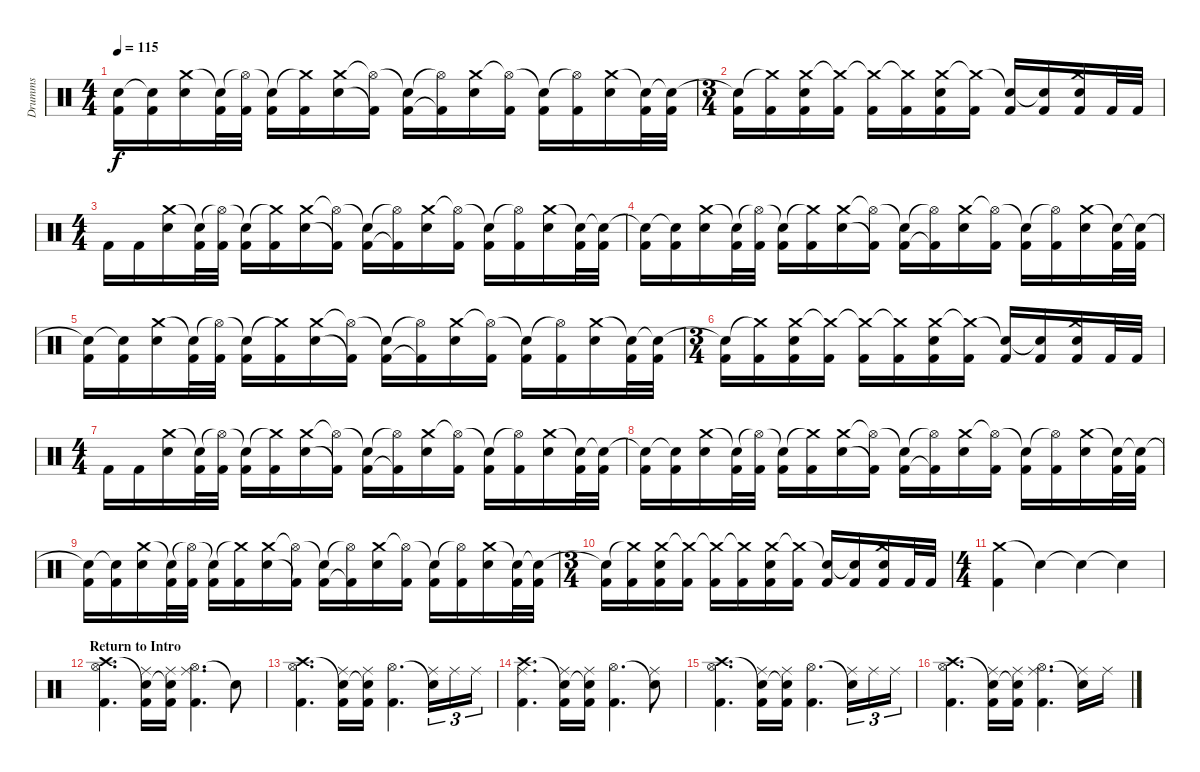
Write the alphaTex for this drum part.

\track ("Drumms" "Drumms") {instrument percussion}
\staff {score}
\articulation defaults
\ts (4 4)
\tempo 115
\clef neutral
\ks c
("Snare (hit)"{t} "Kick (hit) 2").16{dy f} ("Snare (hit)"{t} "Kick (hit) 2").16 ("Crash medium (hit)" "Electric Snare (hit)").16 ("Snare (hit)"{t} "Kick (hit) 2").32 ("Hi-Hat (open)"{t} "Kick (hit) 2").32 ("Snare (hit)"{t} "Kick (hit) 2").16 ("Crash medium (hit)"{t} "Kick (hit) 2").16 ("Crash medium (hit)" "Electric Snare (hit)").16 ("Hi-Hat (open)"{t} "Kick (hit) 2"{t}).16 ("Snare (hit)"{t} "Kick (hit) 2").16 ("Hi-Hat (open)"{t} "Kick (hit) 2"{t}).16 ("Crash medium (hit)" "Electric Snare (hit)").16 ("Hi-Hat (open)"{t} "Kick (hit) 2").16 ("Snare (hit)"{t} "Kick (hit) 2").16 ("Hi-Hat (open)"{t} "Kick (hit) 2").16 ("Crash medium (hit)" "Electric Snare (hit)").16 ("Snare (hit)"{t} "Kick (hit) 2").32 ("Snare (hit)"{t} "Kick (hit) 2").32 |
\ts (3 4)
("Snare (hit)"{t} "Kick (hit) 2").16 ("Crash medium (hit)"{t} "Kick (hit) 2").16 ("Crash medium (hit)" "Kick (hit) 2" "Electric Snare (hit)").16 ("Crash medium (hit)"{t} "Kick (hit) 2").16 ("Crash medium (hit)"{t} "Kick (hit) 2").16 ("Crash medium (hit)"{t} "Kick (hit) 2").16 ("Crash medium (hit)" "Kick (hit) 2" "Electric Snare (hit)").16 ("Crash medium (hit)"{t} "Kick (hit) 2").16 ("Snare (hit)"{t} "Kick (hit) 2").16 ("Snare (hit)"{t} "Kick (hit) 2").16 ("Crash medium (hit)" "Kick (hit) 2" "Electric Snare (hit)").16 "Kick (hit) 2".32 "Kick (hit) 2".32 |
\ts (4 4)
"Kick (hit) 2".16 "Kick (hit) 2".16 ("Crash medium (hit)" "Electric Snare (hit)").16 ("Snare (hit)"{t} "Kick (hit) 2").32 ("Hi-Hat (open)"{t} "Kick (hit) 2").32 ("Snare (hit)"{t} "Kick (hit) 2").16 ("Crash medium (hit)"{t} "Kick (hit) 2").16 ("Crash medium (hit)" "Electric Snare (hit)").16 ("Hi-Hat (open)"{t} "Kick (hit) 2"{t}).16 ("Snare (hit)"{t} "Kick (hit) 2").16 ("Hi-Hat (open)"{t} "Kick (hit) 2"{t}).16 ("Crash medium (hit)" "Electric Snare (hit)").16 ("Hi-Hat (open)"{t} "Kick (hit) 2").16 ("Snare (hit)"{t} "Kick (hit) 2").16 ("Hi-Hat (open)"{t} "Kick (hit) 2").16 ("Crash medium (hit)" "Electric Snare (hit)").16 ("Snare (hit)"{t} "Kick (hit) 2").32 ("Snare (hit)"{t} "Kick (hit) 2").32 |
("Snare (hit)"{t} "Kick (hit) 2").16 ("Snare (hit)"{t} "Kick (hit) 2").16 ("Crash medium (hit)" "Electric Snare (hit)").16 ("Snare (hit)"{t} "Kick (hit) 2").32 ("Hi-Hat (open)"{t} "Kick (hit) 2").32 ("Snare (hit)"{t} "Kick (hit) 2").16 ("Crash medium (hit)"{t} "Kick (hit) 2").16 ("Crash medium (hit)" "Electric Snare (hit)").16 ("Hi-Hat (open)"{t} "Kick (hit) 2"{t}).16 ("Snare (hit)"{t} "Kick (hit) 2").16 ("Hi-Hat (open)"{t} "Kick (hit) 2"{t}).16 ("Crash medium (hit)" "Electric Snare (hit)").16 ("Hi-Hat (open)"{t} "Kick (hit) 2").16 ("Snare (hit)"{t} "Kick (hit) 2").16 ("Hi-Hat (open)"{t} "Kick (hit) 2").16 ("Crash medium (hit)" "Electric Snare (hit)").16 ("Snare (hit)"{t} "Kick (hit) 2").32 ("Snare (hit)"{t} "Kick (hit) 2").32 |
("Snare (hit)"{t} "Kick (hit) 2").16 ("Snare (hit)"{t} "Kick (hit) 2").16 ("Crash medium (hit)" "Electric Snare (hit)").16 ("Snare (hit)"{t} "Kick (hit) 2").32 ("Hi-Hat (open)"{t} "Kick (hit) 2").32 ("Snare (hit)"{t} "Kick (hit) 2").16 ("Crash medium (hit)"{t} "Kick (hit) 2").16 ("Crash medium (hit)" "Electric Snare (hit)").16 ("Hi-Hat (open)"{t} "Kick (hit) 2"{t}).16 ("Snare (hit)"{t} "Kick (hit) 2").16 ("Hi-Hat (open)"{t} "Kick (hit) 2"{t}).16 ("Crash medium (hit)" "Electric Snare (hit)").16 ("Hi-Hat (open)"{t} "Kick (hit) 2").16 ("Snare (hit)"{t} "Kick (hit) 2").16 ("Hi-Hat (open)"{t} "Kick (hit) 2").16 ("Crash medium (hit)" "Electric Snare (hit)").16 ("Snare (hit)"{t} "Kick (hit) 2").32 ("Snare (hit)"{t} "Kick (hit) 2").32 |
\ts (3 4)
("Snare (hit)"{t} "Kick (hit) 2").16 ("Crash medium (hit)"{t} "Kick (hit) 2").16 ("Crash medium (hit)" "Kick (hit) 2" "Electric Snare (hit)").16 ("Crash medium (hit)"{t} "Kick (hit) 2").16 ("Crash medium (hit)"{t} "Kick (hit) 2").16 ("Crash medium (hit)"{t} "Kick (hit) 2").16 ("Crash medium (hit)" "Kick (hit) 2" "Electric Snare (hit)").16 ("Crash medium (hit)"{t} "Kick (hit) 2").16 ("Snare (hit)"{t} "Kick (hit) 2").16 ("Snare (hit)"{t} "Kick (hit) 2").16 ("Crash medium (hit)" "Kick (hit) 2" "Electric Snare (hit)").16 "Kick (hit) 2".32 "Kick (hit) 2".32 |
\ts (4 4)
"Kick (hit) 2".16 "Kick (hit) 2".16 ("Crash medium (hit)" "Electric Snare (hit)").16 ("Snare (hit)"{t} "Kick (hit) 2").32 ("Hi-Hat (open)"{t} "Kick (hit) 2").32 ("Snare (hit)"{t} "Kick (hit) 2").16 ("Crash medium (hit)"{t} "Kick (hit) 2").16 ("Crash medium (hit)" "Electric Snare (hit)").16 ("Hi-Hat (open)"{t} "Kick (hit) 2"{t}).16 ("Snare (hit)"{t} "Kick (hit) 2").16 ("Hi-Hat (open)"{t} "Kick (hit) 2"{t}).16 ("Crash medium (hit)" "Electric Snare (hit)").16 ("Hi-Hat (open)"{t} "Kick (hit) 2").16 ("Snare (hit)"{t} "Kick (hit) 2").16 ("Hi-Hat (open)"{t} "Kick (hit) 2").16 ("Crash medium (hit)" "Electric Snare (hit)").16 ("Snare (hit)"{t} "Kick (hit) 2").32 ("Snare (hit)"{t} "Kick (hit) 2").32 |
("Snare (hit)"{t} "Kick (hit) 2").16 ("Snare (hit)"{t} "Kick (hit) 2").16 ("Crash medium (hit)" "Electric Snare (hit)").16 ("Snare (hit)"{t} "Kick (hit) 2").32 ("Hi-Hat (open)"{t} "Kick (hit) 2").32 ("Snare (hit)"{t} "Kick (hit) 2").16 ("Crash medium (hit)"{t} "Kick (hit) 2").16 ("Crash medium (hit)" "Electric Snare (hit)").16 ("Hi-Hat (open)"{t} "Kick (hit) 2"{t}).16 ("Snare (hit)"{t} "Kick (hit) 2").16 ("Hi-Hat (open)"{t} "Kick (hit) 2"{t}).16 ("Crash medium (hit)" "Electric Snare (hit)").16 ("Hi-Hat (open)"{t} "Kick (hit) 2").16 ("Snare (hit)"{t} "Kick (hit) 2").16 ("Hi-Hat (open)"{t} "Kick (hit) 2").16 ("Crash medium (hit)" "Electric Snare (hit)").16 ("Snare (hit)"{t} "Kick (hit) 2").32 ("Snare (hit)"{t} "Kick (hit) 2").32 |
("Snare (hit)"{t} "Kick (hit) 2").16 ("Snare (hit)"{t} "Kick (hit) 2").16 ("Crash medium (hit)" "Electric Snare (hit)").16 ("Snare (hit)"{t} "Kick (hit) 2").32 ("Hi-Hat (open)"{t} "Kick (hit) 2").32 ("Snare (hit)"{t} "Kick (hit) 2").16 ("Crash medium (hit)"{t} "Kick (hit) 2").16 ("Crash medium (hit)" "Electric Snare (hit)").16 ("Hi-Hat (open)"{t} "Kick (hit) 2"{t}).16 ("Snare (hit)"{t} "Kick (hit) 2").16 ("Hi-Hat (open)"{t} "Kick (hit) 2"{t}).16 ("Crash medium (hit)" "Electric Snare (hit)").16 ("Hi-Hat (open)"{t} "Kick (hit) 2").16 ("Snare (hit)"{t} "Kick (hit) 2").16 ("Hi-Hat (open)"{t} "Kick (hit) 2").16 ("Crash medium (hit)" "Electric Snare (hit)").16 ("Snare (hit)"{t} "Kick (hit) 2").32 ("Snare (hit)"{t} "Kick (hit) 2").32 |
\ts (3 4)
("Snare (hit)"{t} "Kick (hit) 2").16 ("Crash medium (hit)"{t} "Kick (hit) 2").16 ("Crash medium (hit)" "Kick (hit) 2" "Electric Snare (hit)").16 ("Crash medium (hit)"{t} "Kick (hit) 2").16 ("Crash medium (hit)"{t} "Kick (hit) 2").16 ("Crash medium (hit)"{t} "Kick (hit) 2").16 ("Crash medium (hit)" "Kick (hit) 2" "Electric Snare (hit)").16 ("Crash medium (hit)"{t} "Kick (hit) 2").16 ("Snare (hit)"{t} "Kick (hit) 2").16 ("Snare (hit)"{t} "Kick (hit) 2").16 ("Crash medium (hit)" "Kick (hit) 2" "Electric Snare (hit)").16 "Kick (hit) 2".32 "Kick (hit) 2".32 |
\ts (4 4)
("Crash medium (hit)" "Kick (hit) 2").4 "Snare (hit)"{t}.4 "Snare (hit)"{t}.4 "Snare (hit)"{t}.4 |
\section ("" "Return to Intro")
("Crash high (hit)" "Hi-Hat (open)" "Kick (hit) 2").4{d} ("Snare (hit)"{t} "Kick (hit) 2" "Ride (middle)").16 ("Snare (hit)"{t} "Kick (hit) 2" "Ride (middle)").16 ("Hi-Hat (open)" "Kick (hit) 2" "Ride (middle)").4{d} "Snare (hit)"{t}.8 |
("Crash high (hit)" "Hi-Hat (open)" "Kick (hit) 2").4{d} ("Snare (hit)"{t} "Kick (hit) 2" "Ride (middle)").16 ("Snare (hit)"{t} "Kick (hit) 2" "Ride (middle)").16 ("Hi-Hat (open)" "Kick (hit) 2").4{d} ("Snare (hit)"{t} "Ride (middle)").16{tu (3 2)} "Ride (middle)".16{tu (3 2)} "Ride (middle)".16{tu (3 2)} |
("Crash high (hit)" "Ride (middle)" "Kick (hit) 2").4{d} ("Snare (hit)"{t} "Kick (hit) 2" "Ride (middle)").16 ("Snare (hit)"{t} "Kick (hit) 2" "Ride (middle)").16 ("Hi-Hat (open)" "Kick (hit) 2").4{d} ("Snare (hit)"{t} "Ride (middle)").8 |
("Crash high (hit)" "Hi-Hat (open)" "Kick (hit) 2").4{d} ("Snare (hit)"{t} "Kick (hit) 2" "Ride (middle)").16 ("Snare (hit)"{t} "Kick (hit) 2" "Ride (middle)").16 ("Hi-Hat (open)" "Kick (hit) 2").4{d} ("Snare (hit)"{t} "Ride (middle)").16{tu (3 2)} "Ride (middle)".16{tu (3 2)} "Ride (middle)".16{tu (3 2)} |
("Crash high (hit)" "Hi-Hat (open)" "Kick (hit) 2").4{d} ("Snare (hit)"{t} "Kick (hit) 2" "Ride (middle)").16 ("Snare (hit)"{t} "Kick (hit) 2" "Ride (middle)").16 ("Hi-Hat (open)" "Kick (hit) 2" "Ride (middle)").4{d} ("Snare (hit)"{t} "Ride (middle)").16 "Ride (middle)".16
